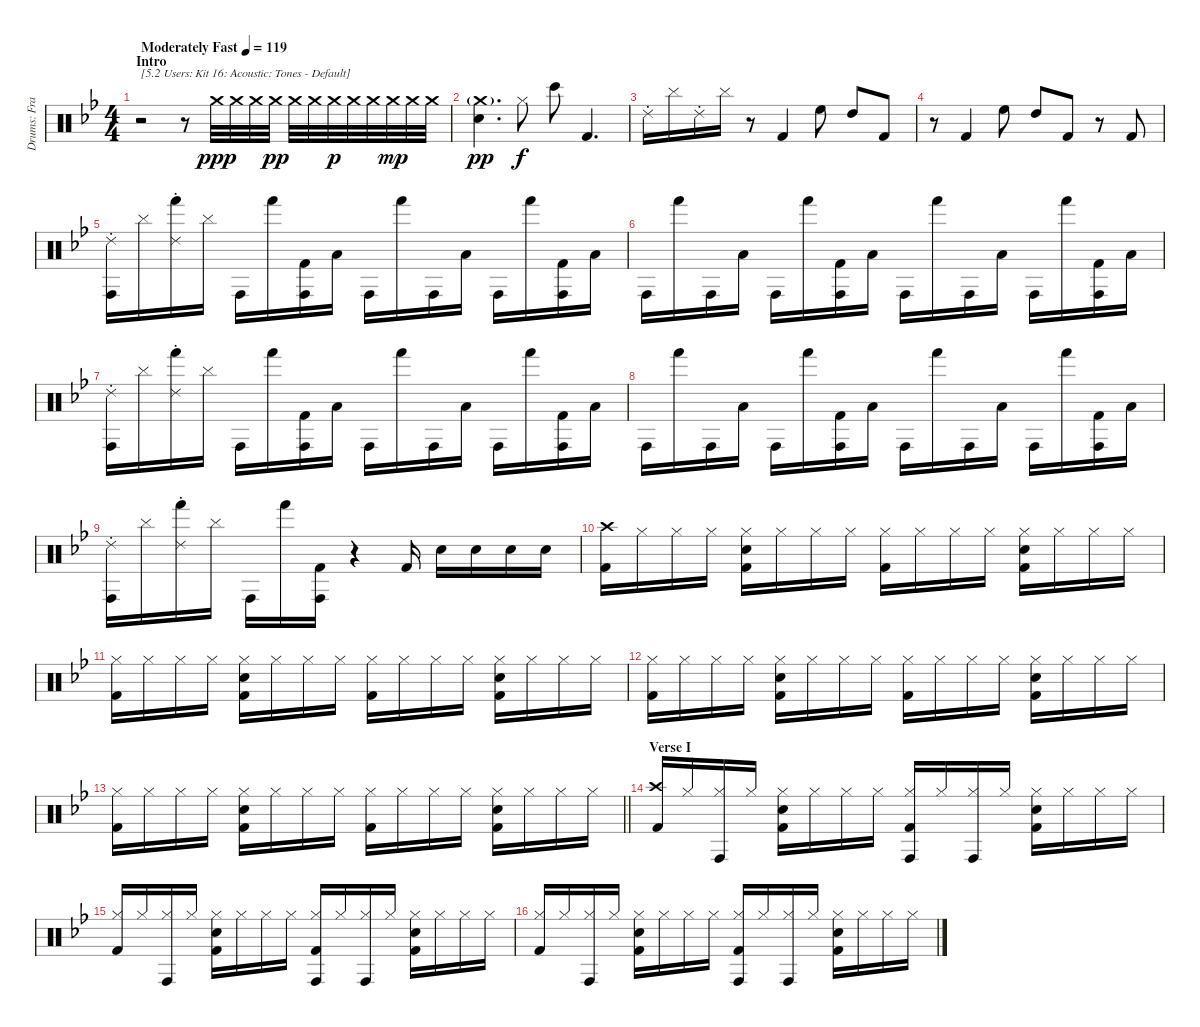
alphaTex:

\track ("Drums: Frank" "Drums: Fra") {instrument percussion}
\staff {score}
\articulation defaults
\ts (4 4)
\section ("" "Intro")
\tempo (119 "Moderately Fast")
\clef neutral
\ks bb
r.2{txt "[5.2 Users: Kit 16: Acoustic: Tones - Default]" dy ppp} r.8 "Crash medium (hit)".32 "Crash medium (hit)".32 "Crash medium (hit)".32 "Crash medium (hit)".32{dy pp} "Crash medium (hit)".32 "Crash medium (hit)".32 "Crash medium (hit)".32{dy p} "Crash medium (hit)".32 "Crash medium (hit)".32 "Crash medium (hit)".32{dy mp} "Crash medium (hit)".32 "Crash medium (hit)".32 |
("Crash medium (hit)"{g} "Snare (hit) 2").4{d dy pp} "Hi-Hat (closed)".8{dy f} "Bongo High (hit)".8 "Kick (hit) 2".4{d} |
"Ride (choke) 2".16 "Cymbal (hit)".16 "Ride (choke) 2".16 "Cymbal (hit)".16 r.8 "Kick (hit) 2".4 "High Floor Tom (hit)".8 "High Tom (hit)".8 "Kick (hit) 2".8 |
r.8 "Kick (hit) 2".4 "High Floor Tom (hit)".8 "High Tom (hit)".8 "Kick (hit) 2".8 r.8 "Kick (hit) 2".8 |
("Conga high (hit)" "Ride (choke) 2").16 "Cymbal (hit)".16 ("Hand (hit)" "Ride (choke) 2").16 "Cymbal (hit)".16 "Conga high (hit)".16 "Hand (hit)".16 ("Conga high (hit)" "Kick (hit) 2").16 "Low Floor Tom (hit)".16 "Conga high (hit)".16 "Hand (hit)".16 "Conga high (hit)".16 "Low Floor Tom (hit)".16 "Conga high (hit)".16 "Hand (hit)".16 ("Conga high (hit)" "Kick (hit) 2").16 "Low Floor Tom (hit)".16 |
"Conga high (hit)".16 "Hand (hit)".16 "Conga high (hit)".16 "Low Floor Tom (hit)".16 "Conga high (hit)".16 "Hand (hit)".16 ("Conga high (hit)" "Kick (hit) 2").16 "Low Floor Tom (hit)".16 "Conga high (hit)".16 "Hand (hit)".16 "Conga high (hit)".16 "Low Floor Tom (hit)".16 "Conga high (hit)".16 "Hand (hit)".16 ("Conga high (hit)" "Kick (hit) 2").16 "Low Floor Tom (hit)".16 |
("Conga high (hit)" "Ride (choke) 2").16 "Cymbal (hit)".16 ("Hand (hit)" "Ride (choke) 2").16 "Cymbal (hit)".16 "Conga high (hit)".16 "Hand (hit)".16 ("Conga high (hit)" "Kick (hit) 2").16 "Low Floor Tom (hit)".16 "Conga high (hit)".16 "Hand (hit)".16 "Conga high (hit)".16 "Low Floor Tom (hit)".16 "Conga high (hit)".16 "Hand (hit)".16 ("Conga high (hit)" "Kick (hit) 2").16 "Low Floor Tom (hit)".16 |
"Conga high (hit)".16 "Hand (hit)".16 "Conga high (hit)".16 "Low Floor Tom (hit)".16 "Conga high (hit)".16 "Hand (hit)".16 ("Conga high (hit)" "Kick (hit) 2").16 "Low Floor Tom (hit)".16 "Conga high (hit)".16 "Hand (hit)".16 "Conga high (hit)".16 "Low Floor Tom (hit)".16 "Conga high (hit)".16 "Hand (hit)".16 ("Conga high (hit)" "Kick (hit) 2").16 "Low Floor Tom (hit)".16 |
("Conga high (hit)" "Ride (choke) 2").16 "Cymbal (hit)".16 ("Hand (hit)" "Ride (choke) 2").16 "Cymbal (hit)".16 "Conga high (hit)".16 "Hand (hit)".16 ("Conga high (hit)" "Kick (hit) 2").16 r.4 "Kick (hit) 2".16 "Snare (hit) 2".16 "Snare (hit) 2".16 "Snare (hit) 2".16 "Snare (hit) 2".16 |
("Crash high (hit)" "Kick (hit) 2").16 "Hi-Hat (closed)".16 "Hi-Hat (closed)".16 "Hi-Hat (closed)".16 ("Hi-Hat (closed)" "Snare (hit) 2" "Kick (hit) 2").16 "Hi-Hat (closed)".16 "Hi-Hat (closed)".16 "Hi-Hat (closed)".16 ("Hi-Hat (closed)" "Kick (hit) 2").16 "Hi-Hat (closed)".16 "Hi-Hat (closed)".16 "Hi-Hat (closed)".16 ("Hi-Hat (closed)" "Snare (hit) 2" "Kick (hit) 2").16 "Hi-Hat (closed)".16 "Hi-Hat (closed)".16 "Hi-Hat (closed)".16 |
("Hi-Hat (closed)" "Kick (hit) 2").16 "Hi-Hat (closed)".16 "Hi-Hat (closed)".16 "Hi-Hat (closed)".16 ("Hi-Hat (closed)" "Snare (hit) 2" "Kick (hit) 2").16 "Hi-Hat (closed)".16 "Hi-Hat (closed)".16 "Hi-Hat (closed)".16 ("Hi-Hat (closed)" "Kick (hit) 2").16 "Hi-Hat (closed)".16 "Hi-Hat (closed)".16 "Hi-Hat (closed)".16 ("Hi-Hat (closed)" "Snare (hit) 2" "Kick (hit) 2").16 "Hi-Hat (closed)".16 "Hi-Hat (closed)".16 "Hi-Hat (closed)".16 |
("Hi-Hat (closed)" "Kick (hit) 2").16 "Hi-Hat (closed)".16 "Hi-Hat (closed)".16 "Hi-Hat (closed)".16 ("Hi-Hat (closed)" "Snare (hit) 2" "Kick (hit) 2").16 "Hi-Hat (closed)".16 "Hi-Hat (closed)".16 "Hi-Hat (closed)".16 ("Hi-Hat (closed)" "Kick (hit) 2").16 "Hi-Hat (closed)".16 "Hi-Hat (closed)".16 "Hi-Hat (closed)".16 ("Hi-Hat (closed)" "Snare (hit) 2" "Kick (hit) 2").16 "Hi-Hat (closed)".16 "Hi-Hat (closed)".16 "Hi-Hat (closed)".16 |
\barLineRight lightlight
("Hi-Hat (closed)" "Kick (hit) 2").16 "Hi-Hat (closed)".16 "Hi-Hat (closed)".16 "Hi-Hat (closed)".16 ("Hi-Hat (closed)" "Snare (hit) 2" "Kick (hit) 2").16 "Hi-Hat (closed)".16 "Hi-Hat (closed)".16 "Hi-Hat (closed)".16 ("Hi-Hat (closed)" "Kick (hit) 2").16 "Hi-Hat (closed)".16 "Hi-Hat (closed)".16 "Hi-Hat (closed)".16 ("Hi-Hat (closed)" "Snare (hit) 2" "Kick (hit) 2").16 "Hi-Hat (closed)".16 "Hi-Hat (closed)".16 "Hi-Hat (closed)".16 |
\section ("" "Verse I")
("Crash high (hit)" "Kick (hit) 2").16 "Hi-Hat (closed)".16 ("Hi-Hat (closed)" "Conga high (hit)").16 "Hi-Hat (closed)".16 ("Hi-Hat (closed)" "Electric Snare (hit)" "Kick (hit) 2").16 "Hi-Hat (closed)".16 "Hi-Hat (closed)".16 "Hi-Hat (closed)".16 ("Hi-Hat (closed)" "Conga high (hit)" "Kick (hit) 2").16 "Hi-Hat (closed)".16 ("Hi-Hat (closed)" "Conga high (hit)").16 "Hi-Hat (closed)".16 ("Hi-Hat (closed)" "Electric Snare (hit)" "Kick (hit) 2").16 "Hi-Hat (closed)".16 "Hi-Hat (closed)".16 "Hi-Hat (closed)".16 |
("Hi-Hat (closed)" "Kick (hit) 2").16 "Hi-Hat (closed)".16 ("Hi-Hat (closed)" "Conga high (hit)").16 "Hi-Hat (closed)".16 ("Hi-Hat (closed)" "Electric Snare (hit)" "Kick (hit) 2").16 "Hi-Hat (closed)".16 "Hi-Hat (closed)".16 "Hi-Hat (closed)".16 ("Hi-Hat (closed)" "Conga high (hit)" "Kick (hit) 2").16 "Hi-Hat (closed)".16 ("Hi-Hat (closed)" "Conga high (hit)").16 "Hi-Hat (closed)".16 ("Hi-Hat (closed)" "Electric Snare (hit)" "Kick (hit) 2").16 "Hi-Hat (closed)".16 "Hi-Hat (closed)".16 "Hi-Hat (closed)".16 |
("Hi-Hat (closed)" "Kick (hit) 2").16 "Hi-Hat (closed)".16 ("Hi-Hat (closed)" "Conga high (hit)").16 "Hi-Hat (closed)".16 ("Hi-Hat (closed)" "Electric Snare (hit)" "Kick (hit) 2").16 "Hi-Hat (closed)".16 "Hi-Hat (closed)".16 "Hi-Hat (closed)".16 ("Hi-Hat (closed)" "Conga high (hit)" "Kick (hit) 2").16 "Hi-Hat (closed)".16 ("Hi-Hat (closed)" "Conga high (hit)").16 "Hi-Hat (closed)".16 ("Hi-Hat (closed)" "Electric Snare (hit)" "Kick (hit) 2").16 "Hi-Hat (closed)".16 "Hi-Hat (closed)".16 "Hi-Hat (closed)".16
